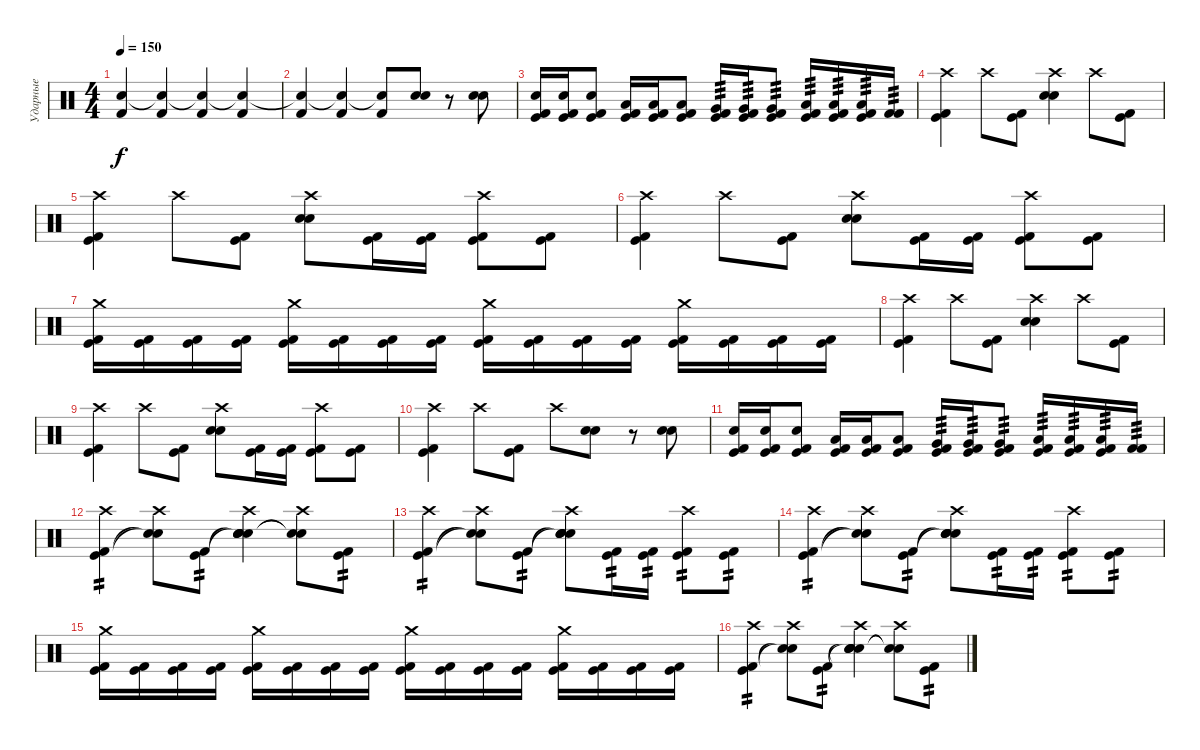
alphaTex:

\track ("Ударные" "Ударные") {instrument percussion}
\staff {score}
\articulation defaults
\ts (4 4)
\tempo 150
\clef neutral
\ks c
("Kick (hit) 2" "Snare (hit)"{t}).4{dy f} ("Kick (hit) 2" "Snare (hit)"{t}).4 ("Kick (hit) 2" "Snare (hit)"{t}).4 ("Kick (hit) 2" "Snare (hit)"{t}).4 |
("Kick (hit) 2" "Snare (hit)"{t}).4 ("Kick (hit) 2" "Snare (hit)"{t}).4 ("Kick (hit) 2" "Snare (hit)"{t}).8 ("Snare (hit) 2" "Electric Snare (hit)").8 r.8 ("Snare (hit) 2" "Electric Snare (hit)").8 |
("Kick (hit) 2" "Kick (hit)" "Electric Snare (hit)").16 ("Kick (hit) 2" "Kick (hit)" "Electric Snare (hit)").16 ("Kick (hit) 2" "Kick (hit)" "Electric Snare (hit)").8 ("Kick (hit) 2" "Kick (hit)" "Low Tom (hit)").16 ("Kick (hit) 2" "Kick (hit)" "Low Tom (hit)").16 ("Kick (hit) 2" "Kick (hit)" "Low Tom (hit)").8 ("Kick (hit) 2" "Kick (hit)" "Very Low Tom (hit)").16{tp 3} ("Kick (hit) 2" "Kick (hit)" "Very Low Tom (hit)").16{tp 3} ("Kick (hit) 2" "Kick (hit)" "Very Low Tom (hit)").8{tp 3} ("Kick (hit) 2" "Kick (hit)" "Low Floor Tom (hit)").16{tp 3} ("Kick (hit) 2" "Kick (hit)" "Low Floor Tom (hit)").16{tp 3} ("Kick (hit) 2" "Kick (hit)" "Low Floor Tom (hit)").16{tp 3} ("Kick (hit) 2" "Kick (hit) 2").16{tp 3} |
("Kick (hit) 2" "Kick (hit)" "Crash high (hit)").4 "Crash high (hit)".8 ("Kick (hit) 2" "Kick (hit)").8 ("Electric Snare (hit)" "Snare (hit) 2" "Crash high (hit)").4 "Crash high (hit)".8 ("Kick (hit) 2" "Kick (hit)").8 |
("Kick (hit) 2" "Kick (hit)" "Crash high (hit)").4 "Crash high (hit)".8 ("Kick (hit) 2" "Kick (hit)").8 ("Electric Snare (hit)" "Snare (hit) 2" "Crash high (hit)").8 ("Kick (hit) 2" "Kick (hit)").16 ("Kick (hit) 2" "Kick (hit)").16 ("Kick (hit) 2" "Kick (hit)" "Crash high (hit)").8 ("Kick (hit) 2" "Kick (hit)").8 |
("Kick (hit) 2" "Kick (hit)" "Crash high (hit)").4 "Crash high (hit)".8 ("Kick (hit) 2" "Kick (hit)").8 ("Electric Snare (hit)" "Snare (hit) 2" "Crash high (hit)").8 ("Kick (hit) 2" "Kick (hit)").16 ("Kick (hit) 2" "Kick (hit)").16 ("Kick (hit) 2" "Kick (hit)" "Crash high (hit)").8 ("Kick (hit) 2" "Kick (hit)").8 |
("Kick (hit)" "Kick (hit) 2" "Crash medium (hit)").16 ("Kick (hit)" "Kick (hit) 2").16 ("Kick (hit)" "Kick (hit) 2").16 ("Kick (hit)" "Kick (hit) 2").16 ("Kick (hit)" "Kick (hit) 2" "Crash medium (hit)").16 ("Kick (hit)" "Kick (hit) 2").16 ("Kick (hit)" "Kick (hit) 2").16 ("Kick (hit)" "Kick (hit) 2").16 ("Kick (hit)" "Kick (hit) 2" "Crash medium (hit)").16 ("Kick (hit)" "Kick (hit) 2").16 ("Kick (hit)" "Kick (hit) 2").16 ("Kick (hit)" "Kick (hit) 2").16 ("Kick (hit)" "Kick (hit) 2" "Crash medium (hit)").16 ("Kick (hit)" "Kick (hit) 2").16 ("Kick (hit)" "Kick (hit) 2").16 ("Kick (hit)" "Kick (hit) 2").16 |
("Kick (hit) 2" "Kick (hit)" "Crash high (hit)").4 "Crash high (hit)".8 ("Kick (hit) 2" "Kick (hit)").8 ("Electric Snare (hit)" "Snare (hit) 2" "Crash high (hit)").4 "Crash high (hit)".8 ("Kick (hit) 2" "Kick (hit)").8 |
("Kick (hit) 2" "Kick (hit)" "Crash high (hit)").4 "Crash high (hit)".8 ("Kick (hit) 2" "Kick (hit)").8 ("Electric Snare (hit)" "Snare (hit) 2" "Crash high (hit)").8 ("Kick (hit) 2" "Kick (hit)").16 ("Kick (hit) 2" "Kick (hit)").16 ("Kick (hit) 2" "Kick (hit)" "Crash high (hit)").8 ("Kick (hit) 2" "Kick (hit)").8 |
("Kick (hit) 2" "Kick (hit)" "Crash high (hit)").4 "Crash high (hit)".8 ("Kick (hit) 2" "Kick (hit)").8 "Crash high (hit)".8 ("Snare (hit) 2" "Electric Snare (hit)").8 r.8 ("Snare (hit) 2" "Electric Snare (hit)").8 |
("Kick (hit) 2" "Kick (hit)" "Electric Snare (hit)").16 ("Kick (hit) 2" "Kick (hit)" "Electric Snare (hit)").16 ("Kick (hit) 2" "Kick (hit)" "Electric Snare (hit)").8 ("Kick (hit) 2" "Kick (hit)" "Low Tom (hit)").16 ("Kick (hit) 2" "Kick (hit)" "Low Tom (hit)").16 ("Kick (hit) 2" "Kick (hit)" "Low Tom (hit)").8 ("Kick (hit) 2" "Kick (hit)" "Very Low Tom (hit)").16{tp 3} ("Kick (hit) 2" "Kick (hit)" "Very Low Tom (hit)").16{tp 3} ("Kick (hit) 2" "Kick (hit)" "Very Low Tom (hit)").8{tp 3} ("Kick (hit) 2" "Kick (hit)" "Low Floor Tom (hit)").16{tp 3} ("Kick (hit) 2" "Kick (hit)" "Low Floor Tom (hit)").16{tp 3} ("Kick (hit) 2" "Kick (hit)" "Low Floor Tom (hit)").16{tp 3} ("Kick (hit) 2" "Kick (hit) 2").16{tp 3} |
("Kick (hit) 2" "Kick (hit)" "Crash high (hit)").4{tp 2} ("Snare (hit)"{t} "Snare (hit)"{t} "Crash high (hit)").8 ("Kick (hit) 2" "Kick (hit)").8{tp 2} ("Snare (hit)"{t} "Snare (hit)"{t} "Electric Snare (hit)" "Snare (hit) 2" "Crash high (hit)").4 ("Snare (hit)"{t} "Snare (hit)"{t} "Crash high (hit)").8 ("Kick (hit) 2" "Kick (hit)").8{tp 2} |
("Kick (hit) 2" "Kick (hit)" "Crash high (hit)").4{tp 2} ("Snare (hit)"{t} "Snare (hit)"{t} "Crash high (hit)").8 ("Kick (hit) 2" "Kick (hit)").8{tp 2} ("Snare (hit)"{t} "Snare (hit)"{t} "Electric Snare (hit)" "Snare (hit) 2" "Crash high (hit)").8 ("Kick (hit) 2" "Kick (hit)").16{tp 2} ("Kick (hit) 2" "Kick (hit)").16{tp 2} ("Kick (hit) 2" "Kick (hit)" "Crash high (hit)").8{tp 2} ("Kick (hit) 2" "Kick (hit)").8{tp 2} |
("Kick (hit) 2" "Kick (hit)" "Crash high (hit)").4{tp 2} ("Snare (hit)"{t} "Snare (hit)"{t} "Crash high (hit)").8 ("Kick (hit) 2" "Kick (hit)").8{tp 2} ("Snare (hit)"{t} "Snare (hit)"{t} "Electric Snare (hit)" "Snare (hit) 2" "Crash high (hit)").8 ("Kick (hit) 2" "Kick (hit)").16{tp 2} ("Kick (hit) 2" "Kick (hit)").16{tp 2} ("Kick (hit) 2" "Kick (hit)" "Crash high (hit)").8{tp 2} ("Kick (hit) 2" "Kick (hit)").8{tp 2} |
("Kick (hit)" "Kick (hit) 2" "Crash medium (hit)").16 ("Kick (hit)" "Kick (hit) 2").16 ("Kick (hit)" "Kick (hit) 2").16 ("Kick (hit)" "Kick (hit) 2").16 ("Kick (hit)" "Kick (hit) 2" "Crash medium (hit)").16 ("Kick (hit)" "Kick (hit) 2").16 ("Kick (hit)" "Kick (hit) 2").16 ("Kick (hit)" "Kick (hit) 2").16 ("Kick (hit)" "Kick (hit) 2" "Crash medium (hit)").16 ("Kick (hit)" "Kick (hit) 2").16 ("Kick (hit)" "Kick (hit) 2").16 ("Kick (hit)" "Kick (hit) 2").16 ("Kick (hit)" "Kick (hit) 2" "Crash medium (hit)").16 ("Kick (hit)" "Kick (hit) 2").16 ("Kick (hit)" "Kick (hit) 2").16 ("Kick (hit)" "Kick (hit) 2").16 |
("Kick (hit) 2" "Kick (hit)" "Crash high (hit)").4{tp 2} ("Snare (hit)"{t} "Snare (hit)"{t} "Crash high (hit)").8 ("Kick (hit) 2" "Kick (hit)").8{tp 2} ("Snare (hit)"{t} "Snare (hit)"{t} "Electric Snare (hit)" "Snare (hit) 2" "Crash high (hit)").4 ("Snare (hit)"{t} "Snare (hit)"{t} "Crash high (hit)").8 ("Kick (hit) 2" "Kick (hit)").8{tp 2}
